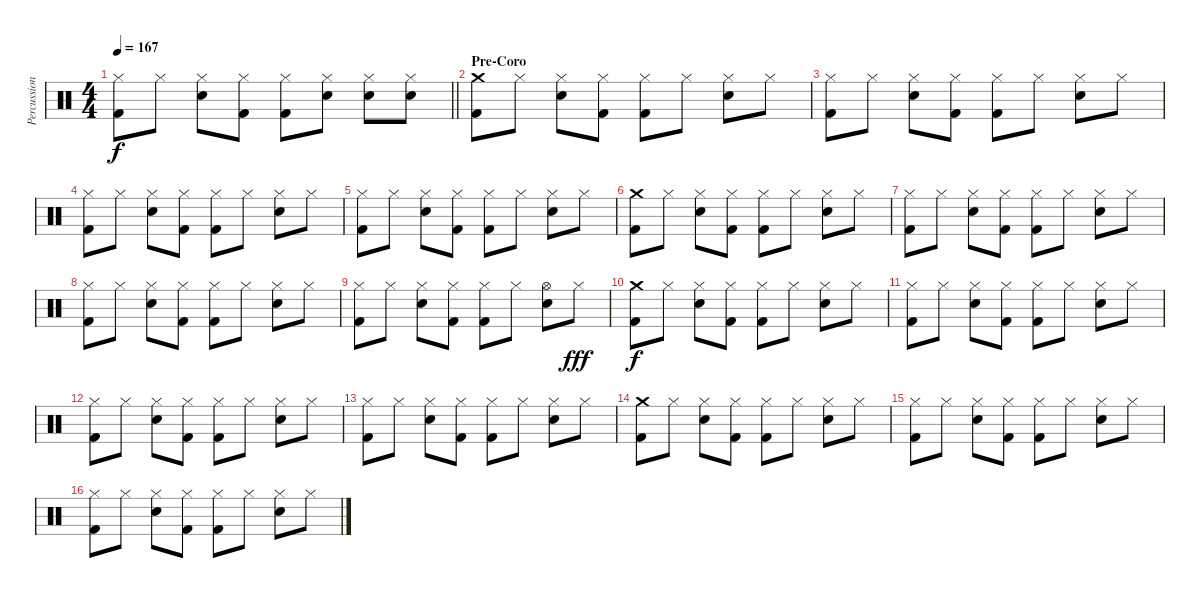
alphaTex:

\track ("Percussion" "Percussion") {instrument percussion}
\staff {score}
\articulation defaults
\ts (4 4)
\tempo 167
\clef neutral
\barLineRight lightlight
\ks c
("Hi-Hat (closed)" "Kick (hit) 2").8{dy f} "Hi-Hat (closed)".8 ("Hi-Hat (closed)" "Snare (hit) 2").8 ("Hi-Hat (closed)" "Kick (hit) 2").8 ("Hi-Hat (closed)" "Kick (hit) 2").8 ("Hi-Hat (closed)" "Snare (hit) 2").8 ("Hi-Hat (closed)" "Snare (hit) 2").8 ("Hi-Hat (closed)" "Snare (hit) 2").8 |
\section ("" "Pre-Coro")
("Crash medium (hit)" "Kick (hit) 2").8 "Hi-Hat (closed)".8 ("Hi-Hat (closed)" "Snare (hit) 2").8 ("Hi-Hat (closed)" "Kick (hit) 2").8 ("Hi-Hat (closed)" "Kick (hit) 2").8 "Hi-Hat (closed)".8 ("Hi-Hat (closed)" "Snare (hit) 2").8 "Hi-Hat (closed)".8 |
("Hi-Hat (closed)" "Kick (hit) 2").8 "Hi-Hat (closed)".8 ("Hi-Hat (closed)" "Snare (hit) 2").8 ("Hi-Hat (closed)" "Kick (hit) 2").8 ("Hi-Hat (closed)" "Kick (hit) 2").8 "Hi-Hat (closed)".8 ("Hi-Hat (closed)" "Snare (hit) 2").8 "Hi-Hat (closed)".8 |
("Hi-Hat (closed)" "Kick (hit) 2").8 "Hi-Hat (closed)".8 ("Hi-Hat (closed)" "Snare (hit) 2").8 ("Hi-Hat (closed)" "Kick (hit) 2").8 ("Hi-Hat (closed)" "Kick (hit) 2").8 "Hi-Hat (closed)".8 ("Hi-Hat (closed)" "Snare (hit) 2").8 "Hi-Hat (closed)".8 |
("Hi-Hat (closed)" "Kick (hit) 2").8 "Hi-Hat (closed)".8 ("Hi-Hat (closed)" "Snare (hit) 2").8 ("Hi-Hat (closed)" "Kick (hit) 2").8 ("Hi-Hat (closed)" "Kick (hit) 2").8 "Hi-Hat (closed)".8 ("Hi-Hat (closed)" "Snare (hit) 2").8 "Hi-Hat (closed)".8 |
("Crash medium (hit)" "Kick (hit) 2").8 "Hi-Hat (closed)".8 ("Hi-Hat (closed)" "Snare (hit) 2").8 ("Hi-Hat (closed)" "Kick (hit) 2").8 ("Hi-Hat (closed)" "Kick (hit) 2").8 "Hi-Hat (closed)".8 ("Hi-Hat (closed)" "Snare (hit) 2").8 "Hi-Hat (closed)".8 |
("Hi-Hat (closed)" "Kick (hit) 2").8 "Hi-Hat (closed)".8 ("Hi-Hat (closed)" "Snare (hit) 2").8 ("Hi-Hat (closed)" "Kick (hit) 2").8 ("Hi-Hat (closed)" "Kick (hit) 2").8 "Hi-Hat (closed)".8 ("Hi-Hat (closed)" "Snare (hit) 2").8 "Hi-Hat (closed)".8 |
("Hi-Hat (closed)" "Kick (hit) 2").8 "Hi-Hat (closed)".8 ("Hi-Hat (closed)" "Snare (hit) 2").8 ("Hi-Hat (closed)" "Kick (hit) 2").8 ("Hi-Hat (closed)" "Kick (hit) 2").8 "Hi-Hat (closed)".8 ("Hi-Hat (closed)" "Snare (hit) 2").8 "Hi-Hat (closed)".8 |
("Hi-Hat (closed)" "Kick (hit) 2").8 "Hi-Hat (closed)".8 ("Hi-Hat (closed)" "Snare (hit) 2").8 ("Hi-Hat (closed)" "Kick (hit) 2").8 ("Hi-Hat (closed)" "Kick (hit) 2").8 "Hi-Hat (closed)".8 ("Hi-Hat (open)" "Snare (hit) 2").8 "Hi-Hat (closed)".8{dy fff} |
("Crash medium (hit)" "Kick (hit) 2").8{dy f} "Hi-Hat (closed)".8 ("Hi-Hat (closed)" "Snare (hit) 2").8 ("Hi-Hat (closed)" "Kick (hit) 2").8 ("Hi-Hat (closed)" "Kick (hit) 2").8 "Hi-Hat (closed)".8 ("Hi-Hat (closed)" "Snare (hit) 2").8 "Hi-Hat (closed)".8 |
("Hi-Hat (closed)" "Kick (hit) 2").8 "Hi-Hat (closed)".8 ("Hi-Hat (closed)" "Snare (hit) 2").8 ("Hi-Hat (closed)" "Kick (hit) 2").8 ("Hi-Hat (closed)" "Kick (hit) 2").8 "Hi-Hat (closed)".8 ("Hi-Hat (closed)" "Snare (hit) 2").8 "Hi-Hat (closed)".8 |
("Hi-Hat (closed)" "Kick (hit) 2").8 "Hi-Hat (closed)".8 ("Hi-Hat (closed)" "Snare (hit) 2").8 ("Hi-Hat (closed)" "Kick (hit) 2").8 ("Hi-Hat (closed)" "Kick (hit) 2").8 "Hi-Hat (closed)".8 ("Hi-Hat (closed)" "Snare (hit) 2").8 "Hi-Hat (closed)".8 |
("Hi-Hat (closed)" "Kick (hit) 2").8 "Hi-Hat (closed)".8 ("Hi-Hat (closed)" "Snare (hit) 2").8 ("Hi-Hat (closed)" "Kick (hit) 2").8 ("Hi-Hat (closed)" "Kick (hit) 2").8 "Hi-Hat (closed)".8 ("Hi-Hat (closed)" "Snare (hit) 2").8 "Hi-Hat (closed)".8 |
("Crash medium (hit)" "Kick (hit) 2").8 "Hi-Hat (closed)".8 ("Hi-Hat (closed)" "Snare (hit) 2").8 ("Hi-Hat (closed)" "Kick (hit) 2").8 ("Hi-Hat (closed)" "Kick (hit) 2").8 "Hi-Hat (closed)".8 ("Hi-Hat (closed)" "Snare (hit) 2").8 "Hi-Hat (closed)".8 |
("Hi-Hat (closed)" "Kick (hit) 2").8 "Hi-Hat (closed)".8 ("Hi-Hat (closed)" "Snare (hit) 2").8 ("Hi-Hat (closed)" "Kick (hit) 2").8 ("Hi-Hat (closed)" "Kick (hit) 2").8 "Hi-Hat (closed)".8 ("Hi-Hat (closed)" "Snare (hit) 2").8 "Hi-Hat (closed)".8 |
("Hi-Hat (closed)" "Kick (hit) 2").8 "Hi-Hat (closed)".8 ("Hi-Hat (closed)" "Snare (hit) 2").8 ("Hi-Hat (closed)" "Kick (hit) 2").8 ("Hi-Hat (closed)" "Kick (hit) 2").8 "Hi-Hat (closed)".8 ("Hi-Hat (closed)" "Snare (hit) 2").8 "Hi-Hat (closed)".8
